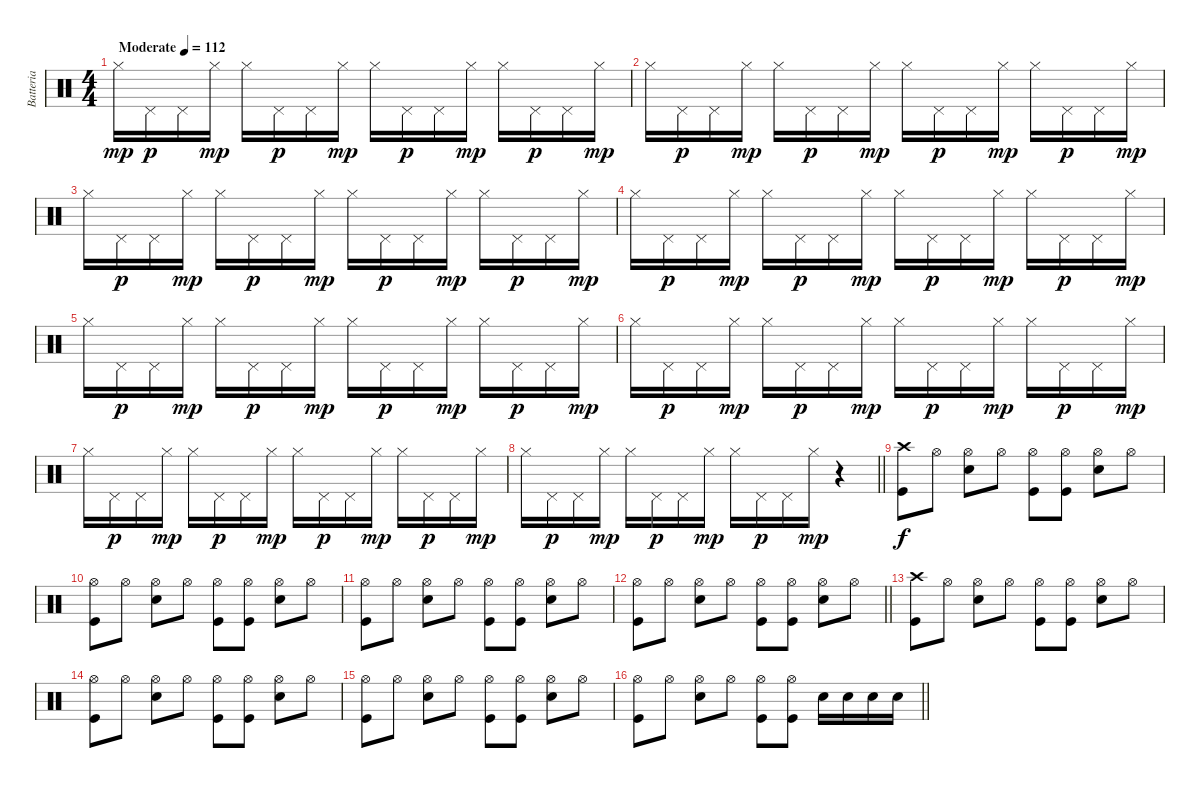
\track ("Batteria" "Batteria") {instrument percussion}
\staff {score}
\articulation defaults
\ts (4 4)
\tempo (112 "Moderate")
\clef neutral
\ks c "Hi-Hat (closed)".16{dy mp} "Pedal Hi-Hat (hit)".16{dy p} "Pedal Hi-Hat (hit)".16 "Hi-Hat (closed)".16{dy mp} "Hi-Hat (closed)".16 "Pedal Hi-Hat (hit)".16{dy p} "Pedal Hi-Hat (hit)".16 "Hi-Hat (closed)".16{dy mp} "Hi-Hat (closed)".16 "Pedal Hi-Hat (hit)".16{dy p} "Pedal Hi-Hat (hit)".16 "Hi-Hat (closed)".16{dy mp} "Hi-Hat (closed)".16 "Pedal Hi-Hat (hit)".16{dy p} "Pedal Hi-Hat (hit)".16 "Hi-Hat (closed)".16{dy mp}
|
"Hi-Hat (closed)".16 "Pedal Hi-Hat (hit)".16{dy p} "Pedal Hi-Hat (hit)".16 "Hi-Hat (closed)".16{dy mp} "Hi-Hat (closed)".16 "Pedal Hi-Hat (hit)".16{dy p} "Pedal Hi-Hat (hit)".16 "Hi-Hat (closed)".16{dy mp} "Hi-Hat (closed)".16 "Pedal Hi-Hat (hit)".16{dy p} "Pedal Hi-Hat (hit)".16 "Hi-Hat (closed)".16{dy mp} "Hi-Hat (closed)".16 "Pedal Hi-Hat (hit)".16{dy p} "Pedal Hi-Hat (hit)".16 "Hi-Hat (closed)".16{dy mp} |
"Hi-Hat (closed)".16 "Pedal Hi-Hat (hit)".16{dy p} "Pedal Hi-Hat (hit)".16 "Hi-Hat (closed)".16{dy mp} "Hi-Hat (closed)".16 "Pedal Hi-Hat (hit)".16{dy p} "Pedal Hi-Hat (hit)".16 "Hi-Hat (closed)".16{dy mp} "Hi-Hat (closed)".16 "Pedal Hi-Hat (hit)".16{dy p} "Pedal Hi-Hat (hit)".16 "Hi-Hat (closed)".16{dy mp} "Hi-Hat (closed)".16 "Pedal Hi-Hat (hit)".16{dy p} "Pedal Hi-Hat (hit)".16 "Hi-Hat (closed)".16{dy mp} |
"Hi-Hat (closed)".16 "Pedal Hi-Hat (hit)".16{dy p} "Pedal Hi-Hat (hit)".16 "Hi-Hat (closed)".16{dy mp} "Hi-Hat (closed)".16 "Pedal Hi-Hat (hit)".16{dy p} "Pedal Hi-Hat (hit)".16 "Hi-Hat (closed)".16{dy mp} "Hi-Hat (closed)".16 "Pedal Hi-Hat (hit)".16{dy p} "Pedal Hi-Hat (hit)".16 "Hi-Hat (closed)".16{dy mp} "Hi-Hat (closed)".16 "Pedal Hi-Hat (hit)".16{dy p} "Pedal Hi-Hat (hit)".16 "Hi-Hat (closed)".16{dy mp} |
"Hi-Hat (closed)".16 "Pedal Hi-Hat (hit)".16{dy p} "Pedal Hi-Hat (hit)".16 "Hi-Hat (closed)".16{dy mp} "Hi-Hat (closed)".16 "Pedal Hi-Hat (hit)".16{dy p} "Pedal Hi-Hat (hit)".16 "Hi-Hat (closed)".16{dy mp} "Hi-Hat (closed)".16 "Pedal Hi-Hat (hit)".16{dy p} "Pedal Hi-Hat (hit)".16 "Hi-Hat (closed)".16{dy mp} "Hi-Hat (closed)".16 "Pedal Hi-Hat (hit)".16{dy p} "Pedal Hi-Hat (hit)".16 "Hi-Hat (closed)".16{dy mp} |
"Hi-Hat (closed)".16 "Pedal Hi-Hat (hit)".16{dy p} "Pedal Hi-Hat (hit)".16 "Hi-Hat (closed)".16{dy mp} "Hi-Hat (closed)".16 "Pedal Hi-Hat (hit)".16{dy p} "Pedal Hi-Hat (hit)".16 "Hi-Hat (closed)".16{dy mp} "Hi-Hat (closed)".16 "Pedal Hi-Hat (hit)".16{dy p} "Pedal Hi-Hat (hit)".16 "Hi-Hat (closed)".16{dy mp} "Hi-Hat (closed)".16 "Pedal Hi-Hat (hit)".16{dy p} "Pedal Hi-Hat (hit)".16 "Hi-Hat (closed)".16{dy mp} |
"Hi-Hat (closed)".16 "Pedal Hi-Hat (hit)".16{dy p} "Pedal Hi-Hat (hit)".16 "Hi-Hat (closed)".16{dy mp} "Hi-Hat (closed)".16 "Pedal Hi-Hat (hit)".16{dy p} "Pedal Hi-Hat (hit)".16 "Hi-Hat (closed)".16{dy mp} "Hi-Hat (closed)".16 "Pedal Hi-Hat (hit)".16{dy p} "Pedal Hi-Hat (hit)".16 "Hi-Hat (closed)".16{dy mp} "Hi-Hat (closed)".16 "Pedal Hi-Hat (hit)".16{dy p} "Pedal Hi-Hat (hit)".16 "Hi-Hat (closed)".16{dy mp} |
\barLineRight lightlight "Hi-Hat (closed)".16 "Pedal Hi-Hat (hit)".16{dy p} "Pedal Hi-Hat (hit)".16 "Hi-Hat (closed)".16{dy mp} "Hi-Hat (closed)".16 "Pedal Hi-Hat (hit)".16{dy p} "Pedal Hi-Hat (hit)".16 "Hi-Hat (closed)".16{dy mp} "Hi-Hat (closed)".16 "Pedal Hi-Hat (hit)".16{dy p} "Pedal Hi-Hat (hit)".16 "Hi-Hat (closed)".16{dy mp}
r.4 |
("Kick (hit)" "Crash high (hit)").8{dy f} "Hi-Hat (open)".8 ("Snare (hit) 2" "Hi-Hat (open)").8 "Hi-Hat (open)".8 ("Kick (hit)" "Hi-Hat (open)").8 ("Kick (hit)" "Hi-Hat (open)").8 ("Snare (hit) 2" "Hi-Hat (open)").8 "Hi-Hat (open)".8 |
("Kick (hit)" "Hi-Hat (open)").8 "Hi-Hat (open)".8 ("Snare (hit) 2" "Hi-Hat (open)").8 "Hi-Hat (open)".8 ("Kick (hit)" "Hi-Hat (open)").8 ("Kick (hit)" "Hi-Hat (open)").8 ("Snare (hit) 2" "Hi-Hat (open)").8 "Hi-Hat (open)".8 |
("Kick (hit)" "Hi-Hat (open)").8 "Hi-Hat (open)".8 ("Snare (hit) 2" "Hi-Hat (open)").8 "Hi-Hat (open)".8 ("Kick (hit)" "Hi-Hat (open)").8 ("Kick (hit)" "Hi-Hat (open)").8 ("Snare (hit) 2" "Hi-Hat (open)").8 "Hi-Hat (open)".8 |
\barLineRight lightlight
("Kick (hit)" "Hi-Hat (open)").8 "Hi-Hat (open)".8 ("Snare (hit) 2" "Hi-Hat (open)").8 "Hi-Hat (open)".8 ("Kick (hit)" "Hi-Hat (open)").8 ("Kick (hit)" "Hi-Hat (open)").8 ("Snare (hit) 2" "Hi-Hat (open)").8 "Hi-Hat (open)".8 |
("Kick (hit)" "Crash high (hit)").8 "Hi-Hat (open)".8 ("Snare (hit) 2" "Hi-Hat (open)").8 "Hi-Hat (open)".8 ("Kick (hit)" "Hi-Hat (open)").8 ("Kick (hit)" "Hi-Hat (open)").8 ("Snare (hit) 2" "Hi-Hat (open)").8 "Hi-Hat (open)".8 |
("Kick (hit)" "Hi-Hat (open)").8 "Hi-Hat (open)".8 ("Snare (hit) 2" "Hi-Hat (open)").8 "Hi-Hat (open)".8 ("Kick (hit)" "Hi-Hat (open)").8 ("Kick (hit)" "Hi-Hat (open)").8 ("Snare (hit) 2" "Hi-Hat (open)").8 "Hi-Hat (open)".8 |
("Kick (hit)" "Hi-Hat (open)").8 "Hi-Hat (open)".8 ("Snare (hit) 2" "Hi-Hat (open)").8 "Hi-Hat (open)".8 ("Kick (hit)" "Hi-Hat (open)").8 ("Kick (hit)" "Hi-Hat (open)").8 ("Snare (hit) 2" "Hi-Hat (open)").8 "Hi-Hat (open)".8 |
\barLineRight lightlight
("Kick (hit)" "Hi-Hat (open)").8 "Hi-Hat (open)".8 ("Snare (hit) 2" "Hi-Hat (open)").8 "Hi-Hat (open)".8 ("Kick (hit)" "Hi-Hat (open)").8 ("Kick (hit)" "Hi-Hat (open)").8 "Snare (hit) 2".16 "Snare (hit) 2".16 "Snare (hit) 2".16 "Snare (hit) 2".16
